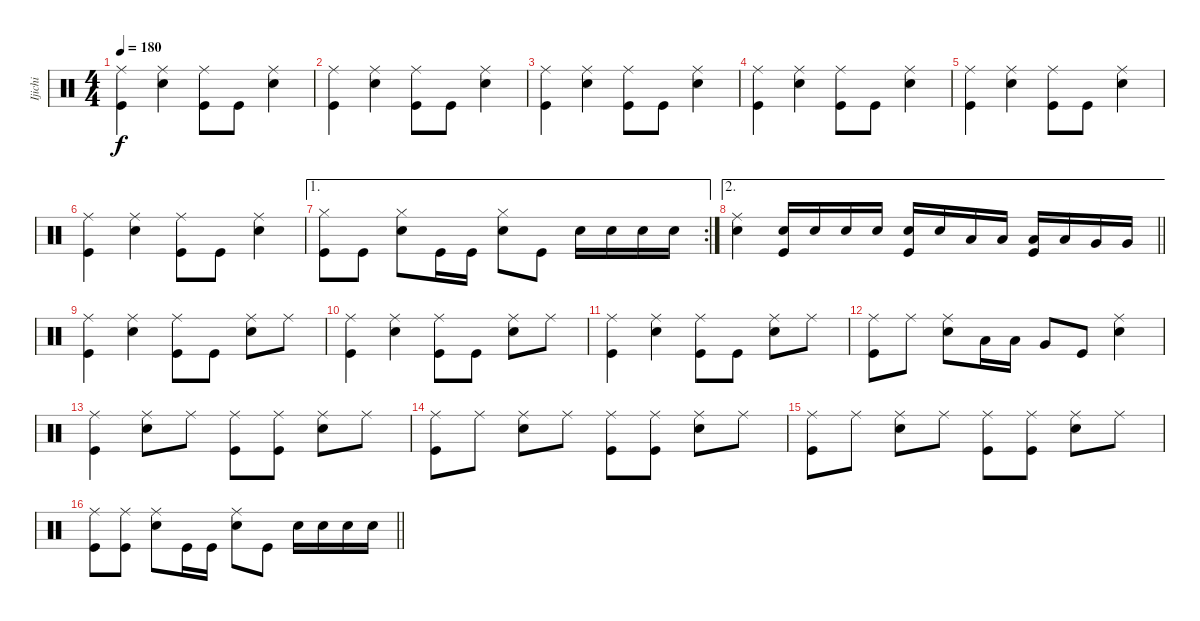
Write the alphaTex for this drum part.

\track ("Ijichi" "Ijichi") {instrument percussion}
\staff {score}
\articulation defaults
\ts (4 4)
\tempo 180
\clef neutral
\ks c
("Ride (middle)" "Kick (hit)").4{dy f} ("Ride (middle)" "Snare (hit) 2").4 ("Ride (middle)" "Kick (hit)").8 "Kick (hit)".8 ("Ride (middle)" "Snare (hit) 2").4 |
("Ride (middle)" "Kick (hit)").4 ("Ride (middle)" "Snare (hit) 2").4 ("Ride (middle)" "Kick (hit)").8 "Kick (hit)".8 ("Ride (middle)" "Snare (hit) 2").4 |
("Ride (middle)" "Kick (hit)").4 ("Ride (middle)" "Snare (hit) 2").4 ("Ride (middle)" "Kick (hit)").8 "Kick (hit)".8 ("Ride (middle)" "Snare (hit) 2").4 |
("Ride (middle)" "Kick (hit)").4 ("Ride (middle)" "Snare (hit) 2").4 ("Ride (middle)" "Kick (hit)").8 "Kick (hit)".8 ("Ride (middle)" "Snare (hit) 2").4 |
("Ride (middle)" "Kick (hit)").4 ("Ride (middle)" "Snare (hit) 2").4 ("Ride (middle)" "Kick (hit)").8 "Kick (hit)".8 ("Ride (middle)" "Snare (hit) 2").4 |
("Ride (middle)" "Kick (hit)").4 ("Ride (middle)" "Snare (hit) 2").4 ("Ride (middle)" "Kick (hit)").8 "Kick (hit)".8 ("Ride (middle)" "Snare (hit) 2").4 |
\ae 1
\rc 2
("Hi-Hat (closed)" "Kick (hit)").8 "Kick (hit)".8 ("Hi-Hat (closed)" "Snare (hit) 2").8 "Kick (hit)".16 "Kick (hit)".16 ("Hi-Hat (closed)" "Snare (hit) 2").8 "Kick (hit)".8 "Snare (hit) 2".16 "Snare (hit) 2".16 "Snare (hit) 2".16 "Snare (hit) 2".16 |
\ae 2
\barLineRight lightlight
("Ride (middle)" "Snare (hit) 2").4 ("Snare (hit) 2" "Kick (hit)").16 "Snare (hit) 2".16 "Snare (hit) 2".16 "Snare (hit) 2".16 ("Snare (hit) 2" "Kick (hit)").16 "Snare (hit) 2".16 "Low Tom (hit)".16 "Low Tom (hit)".16 ("Low Tom (hit)" "Kick (hit)").16 "Low Tom (hit)".16 "Very Low Tom (hit)".16 "Very Low Tom (hit)".16 |
("Ride (middle)" "Kick (hit)").4 ("Ride (middle)" "Snare (hit) 2").4 ("Ride (middle)" "Kick (hit)").8 "Kick (hit)".8 ("Ride (middle)" "Snare (hit) 2").8 "Ride (middle)".8 |
("Ride (middle)" "Kick (hit)").4 ("Ride (middle)" "Snare (hit) 2").4 ("Ride (middle)" "Kick (hit)").8 "Kick (hit)".8 ("Ride (middle)" "Snare (hit) 2").8 "Ride (middle)".8 |
("Ride (middle)" "Kick (hit)").4 ("Ride (middle)" "Snare (hit) 2").4 ("Ride (middle)" "Kick (hit)").8 "Kick (hit)".8 ("Ride (middle)" "Snare (hit) 2").8 "Ride (middle)".8 |
("Ride (middle)" "Kick (hit)").8 "Ride (middle)".8 ("Ride (middle)" "Snare (hit) 2").8 "Low Tom (hit)".16 "Low Tom (hit)".16 "Very Low Tom (hit)".8 "Kick (hit)".8 ("Ride (middle)" "Snare (hit) 2").4 |
("Ride (middle)" "Kick (hit)").4 ("Ride (middle)" "Snare (hit) 2").8 "Ride (middle)".8 ("Ride (middle)" "Kick (hit)").8 ("Ride (middle)" "Kick (hit)").8 ("Ride (middle)" "Snare (hit) 2").8 "Ride (middle)".8 |
("Ride (middle)" "Kick (hit)").8 "Ride (middle)".8 ("Ride (middle)" "Snare (hit) 2").8 "Ride (middle)".8 ("Ride (middle)" "Kick (hit)").8 ("Ride (middle)" "Kick (hit)").8 ("Ride (middle)" "Snare (hit) 2").8 "Ride (middle)".8 |
("Ride (middle)" "Kick (hit)").8 "Ride (middle)".8 ("Ride (middle)" "Snare (hit) 2").8 "Ride (middle)".8 ("Ride (middle)" "Kick (hit)").8 ("Ride (middle)" "Kick (hit)").8 ("Ride (middle)" "Snare (hit) 2").8 "Ride (middle)".8 |
\barLineRight lightlight
("Ride (middle)" "Kick (hit)").8 ("Ride (middle)" "Kick (hit)").8 ("Ride (middle)" "Snare (hit) 2").8 "Kick (hit)".16 "Kick (hit)".16 ("Ride (middle)" "Snare (hit) 2").8 "Kick (hit)".8 "Snare (hit) 2".16 "Snare (hit) 2".16 "Snare (hit) 2".16 "Snare (hit) 2".16
